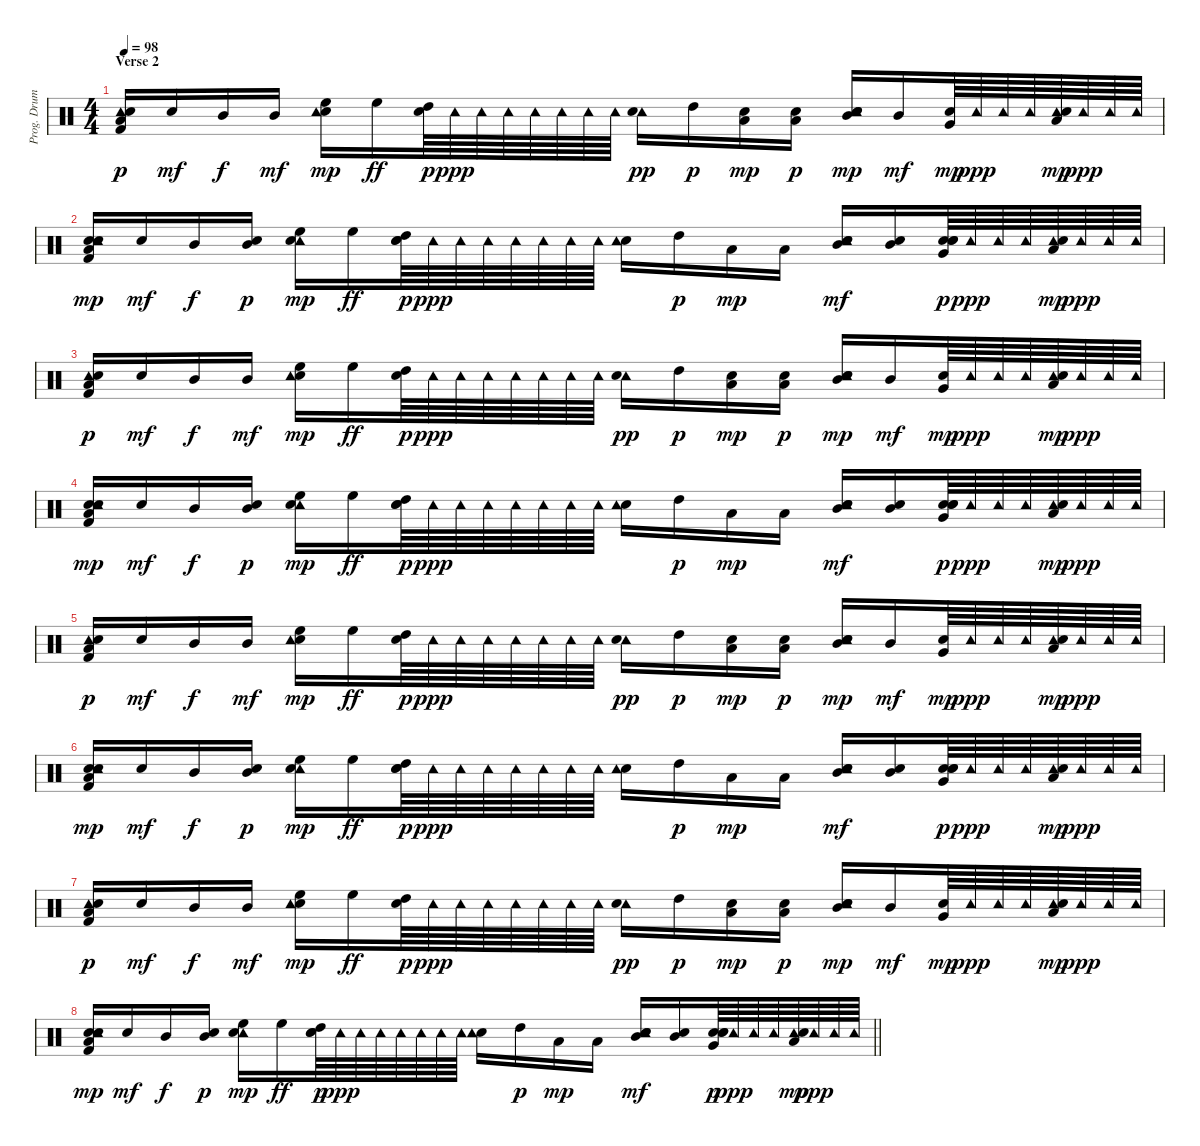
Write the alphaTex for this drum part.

\track ("Prog. Drums" "Prog. Drum") {instrument percussion}
\staff {score}
\articulation defaults
\ts (4 4)
\section ("" "Verse 2")
\tempo 98
\clef neutral
\ks c
("Tambourine (hit)" "Snare (hit)" "Low Floor Tom (hit)" "Kick (hit) 2").16{dy p} "Snare (hit)".16{dy mf} "Mid Tom (hit)".16{dy f} "Mid Tom (hit)".16{dy mf} ("Snare (hit) 2" "High Floor Tom (hit)" "Tambourine (hit)").16{dy mp} "High Floor Tom (hit)".16{dy ff} ("High Tom (hit)" "Snare (hit)").64{dy p} "Tambourine (hit)".64{dy ppp} "Tambourine (hit)".64 "Tambourine (hit)".64 "Tambourine (hit)".64 "Tambourine (hit)".64 "Tambourine (hit)".64 "Tambourine (hit)".64 ("Tambourine (hit)" "Snare (hit) 2").16{dy pp} "High Tom (hit)".16{dy p} ("Snare (hit)" "Low Tom (hit)").16{dy mp} ("Low Tom (hit)" "Snare (hit)").16{dy p} ("Snare (hit) 2" "Mid Tom (hit)" "Snare (hit)" "Tambourine (hit)").16{dy mp} "Mid Tom (hit)".16{dy mf} ("Snare (hit)" "Very Low Tom (hit)").64{dy mp} "Tambourine (hit)".64{dy ppp} "Tambourine (hit)".64 "Tambourine (hit)".64 ("Tambourine (hit)" "Snare (hit) 2" "Low Tom (hit)").64{dy mp} "Tambourine (hit)".64{dy ppp} "Tambourine (hit)".64 "Tambourine (hit)".64 |
("Snare (hit)" "Snare (hit)" "Tambourine (hit)" "Kick (hit) 2" "Low Floor Tom (hit)").16{dy mp} "Snare (hit)".16{dy mf} "Mid Tom (hit)".16{dy f} ("Mid Tom (hit)" "Snare (hit)").16{dy p} ("Tambourine (hit)" "High Floor Tom (hit)" "Snare (hit) 2").16{dy mp} "High Floor Tom (hit)".16{dy ff} ("High Tom (hit)" "Snare (hit)" "Snare (hit)").64{dy p} "Tambourine (hit)".64{dy ppp} "Tambourine (hit)".64 "Tambourine (hit)".64 "Tambourine (hit)".64 "Tambourine (hit)".64 "Tambourine (hit)".64 "Tambourine (hit)".64 ("Snare (hit) 2" "Tambourine (hit)").16 "High Tom (hit)".16{dy p} "Low Tom (hit)".16{dy mp} "Low Tom (hit)".16 ("Tambourine (hit)" "Snare (hit)" "Snare (hit) 2" "Mid Tom (hit)").16{dy mf} ("Snare (hit) 2" "Mid Tom (hit)").16 ("Snare (hit) 2" "Very Low Tom (hit)" "Snare (hit)" "Snare (hit)").64{dy p} "Tambourine (hit)".64{dy ppp} "Tambourine (hit)".64 "Tambourine (hit)".64 ("Tambourine (hit)" "Snare (hit) 2" "Low Tom (hit)").64{dy mp} "Tambourine (hit)".64{dy ppp} "Tambourine (hit)".64 "Tambourine (hit)".64 |
("Tambourine (hit)" "Snare (hit)" "Low Floor Tom (hit)" "Kick (hit) 2").16{dy p} "Snare (hit)".16{dy mf} "Mid Tom (hit)".16{dy f} "Mid Tom (hit)".16{dy mf} ("Snare (hit) 2" "High Floor Tom (hit)" "Tambourine (hit)").16{dy mp} "High Floor Tom (hit)".16{dy ff} ("High Tom (hit)" "Snare (hit)").64{dy p} "Tambourine (hit)".64{dy ppp} "Tambourine (hit)".64 "Tambourine (hit)".64 "Tambourine (hit)".64 "Tambourine (hit)".64 "Tambourine (hit)".64 "Tambourine (hit)".64 ("Tambourine (hit)" "Snare (hit) 2").16{dy pp} "High Tom (hit)".16{dy p} ("Snare (hit)" "Low Tom (hit)").16{dy mp} ("Low Tom (hit)" "Snare (hit)").16{dy p} ("Snare (hit) 2" "Mid Tom (hit)" "Snare (hit)" "Tambourine (hit)").16{dy mp} "Mid Tom (hit)".16{dy mf} ("Snare (hit)" "Very Low Tom (hit)").64{dy mp} "Tambourine (hit)".64{dy ppp} "Tambourine (hit)".64 "Tambourine (hit)".64 ("Tambourine (hit)" "Snare (hit) 2" "Low Tom (hit)").64{dy mp} "Tambourine (hit)".64{dy ppp} "Tambourine (hit)".64 "Tambourine (hit)".64 |
("Snare (hit)" "Snare (hit)" "Tambourine (hit)" "Kick (hit) 2" "Low Floor Tom (hit)").16{dy mp} "Snare (hit)".16{dy mf} "Mid Tom (hit)".16{dy f} ("Mid Tom (hit)" "Snare (hit)").16{dy p} ("Tambourine (hit)" "High Floor Tom (hit)" "Snare (hit) 2").16{dy mp} "High Floor Tom (hit)".16{dy ff} ("High Tom (hit)" "Snare (hit)" "Snare (hit)").64{dy p} "Tambourine (hit)".64{dy ppp} "Tambourine (hit)".64 "Tambourine (hit)".64 "Tambourine (hit)".64 "Tambourine (hit)".64 "Tambourine (hit)".64 "Tambourine (hit)".64 ("Snare (hit) 2" "Tambourine (hit)").16 "High Tom (hit)".16{dy p} "Low Tom (hit)".16{dy mp} "Low Tom (hit)".16 ("Tambourine (hit)" "Snare (hit)" "Snare (hit) 2" "Mid Tom (hit)").16{dy mf} ("Snare (hit) 2" "Mid Tom (hit)").16 ("Snare (hit) 2" "Very Low Tom (hit)" "Snare (hit)" "Snare (hit)").64{dy p} "Tambourine (hit)".64{dy ppp} "Tambourine (hit)".64 "Tambourine (hit)".64 ("Tambourine (hit)" "Snare (hit) 2" "Low Tom (hit)").64{dy mp} "Tambourine (hit)".64{dy ppp} "Tambourine (hit)".64 "Tambourine (hit)".64 |
("Tambourine (hit)" "Snare (hit)" "Low Floor Tom (hit)" "Kick (hit) 2").16{dy p} "Snare (hit)".16{dy mf} "Mid Tom (hit)".16{dy f} "Mid Tom (hit)".16{dy mf} ("Snare (hit) 2" "High Floor Tom (hit)" "Tambourine (hit)").16{dy mp} "High Floor Tom (hit)".16{dy ff} ("High Tom (hit)" "Snare (hit)").64{dy p} "Tambourine (hit)".64{dy ppp} "Tambourine (hit)".64 "Tambourine (hit)".64 "Tambourine (hit)".64 "Tambourine (hit)".64 "Tambourine (hit)".64 "Tambourine (hit)".64 ("Tambourine (hit)" "Snare (hit) 2").16{dy pp} "High Tom (hit)".16{dy p} ("Snare (hit)" "Low Tom (hit)").16{dy mp} ("Low Tom (hit)" "Snare (hit)").16{dy p} ("Snare (hit) 2" "Mid Tom (hit)" "Snare (hit)" "Tambourine (hit)").16{dy mp} "Mid Tom (hit)".16{dy mf} ("Snare (hit)" "Very Low Tom (hit)").64{dy mp} "Tambourine (hit)".64{dy ppp} "Tambourine (hit)".64 "Tambourine (hit)".64 ("Tambourine (hit)" "Snare (hit) 2" "Low Tom (hit)").64{dy mp} "Tambourine (hit)".64{dy ppp} "Tambourine (hit)".64 "Tambourine (hit)".64 |
("Snare (hit)" "Snare (hit)" "Tambourine (hit)" "Kick (hit) 2" "Low Floor Tom (hit)").16{dy mp} "Snare (hit)".16{dy mf} "Mid Tom (hit)".16{dy f} ("Mid Tom (hit)" "Snare (hit)").16{dy p} ("Tambourine (hit)" "High Floor Tom (hit)" "Snare (hit) 2").16{dy mp} "High Floor Tom (hit)".16{dy ff} ("High Tom (hit)" "Snare (hit)" "Snare (hit)").64{dy p} "Tambourine (hit)".64{dy ppp} "Tambourine (hit)".64 "Tambourine (hit)".64 "Tambourine (hit)".64 "Tambourine (hit)".64 "Tambourine (hit)".64 "Tambourine (hit)".64 ("Snare (hit) 2" "Tambourine (hit)").16 "High Tom (hit)".16{dy p} "Low Tom (hit)".16{dy mp} "Low Tom (hit)".16 ("Tambourine (hit)" "Snare (hit)" "Snare (hit) 2" "Mid Tom (hit)").16{dy mf} ("Snare (hit) 2" "Mid Tom (hit)").16 ("Snare (hit) 2" "Very Low Tom (hit)" "Snare (hit)" "Snare (hit)").64{dy p} "Tambourine (hit)".64{dy ppp} "Tambourine (hit)".64 "Tambourine (hit)".64 ("Tambourine (hit)" "Snare (hit) 2" "Low Tom (hit)").64{dy mp} "Tambourine (hit)".64{dy ppp} "Tambourine (hit)".64 "Tambourine (hit)".64 |
("Tambourine (hit)" "Snare (hit)" "Low Floor Tom (hit)" "Kick (hit) 2").16{dy p} "Snare (hit)".16{dy mf} "Mid Tom (hit)".16{dy f} "Mid Tom (hit)".16{dy mf} ("Snare (hit) 2" "High Floor Tom (hit)" "Tambourine (hit)").16{dy mp} "High Floor Tom (hit)".16{dy ff} ("High Tom (hit)" "Snare (hit)").64{dy p} "Tambourine (hit)".64{dy ppp} "Tambourine (hit)".64 "Tambourine (hit)".64 "Tambourine (hit)".64 "Tambourine (hit)".64 "Tambourine (hit)".64 "Tambourine (hit)".64 ("Tambourine (hit)" "Snare (hit) 2").16{dy pp} "High Tom (hit)".16{dy p} ("Snare (hit)" "Low Tom (hit)").16{dy mp} ("Low Tom (hit)" "Snare (hit)").16{dy p} ("Snare (hit) 2" "Mid Tom (hit)" "Snare (hit)" "Tambourine (hit)").16{dy mp} "Mid Tom (hit)".16{dy mf} ("Snare (hit)" "Very Low Tom (hit)").64{dy mp} "Tambourine (hit)".64{dy ppp} "Tambourine (hit)".64 "Tambourine (hit)".64 ("Tambourine (hit)" "Snare (hit) 2" "Low Tom (hit)").64{dy mp} "Tambourine (hit)".64{dy ppp} "Tambourine (hit)".64 "Tambourine (hit)".64 |
\barLineRight lightlight
("Snare (hit)" "Snare (hit)" "Tambourine (hit)" "Kick (hit) 2" "Low Floor Tom (hit)").16{dy mp} "Snare (hit)".16{dy mf} "Mid Tom (hit)".16{dy f} ("Mid Tom (hit)" "Snare (hit)").16{dy p} ("Tambourine (hit)" "High Floor Tom (hit)" "Snare (hit) 2").16{dy mp} "High Floor Tom (hit)".16{dy ff} ("High Tom (hit)" "Snare (hit)" "Snare (hit)").64{dy p} "Tambourine (hit)".64{dy ppp} "Tambourine (hit)".64 "Tambourine (hit)".64 "Tambourine (hit)".64 "Tambourine (hit)".64 "Tambourine (hit)".64 "Tambourine (hit)".64 ("Snare (hit) 2" "Tambourine (hit)").16 "High Tom (hit)".16{dy p} "Low Tom (hit)".16{dy mp} "Low Tom (hit)".16 ("Tambourine (hit)" "Snare (hit)" "Snare (hit) 2" "Mid Tom (hit)").16{dy mf} ("Snare (hit) 2" "Mid Tom (hit)").16 ("Snare (hit) 2" "Very Low Tom (hit)" "Snare (hit)" "Snare (hit)").64{dy p} "Tambourine (hit)".64{dy ppp} "Tambourine (hit)".64 "Tambourine (hit)".64 ("Tambourine (hit)" "Snare (hit) 2" "Low Tom (hit)").64{dy mp} "Tambourine (hit)".64{dy ppp} "Tambourine (hit)".64 "Tambourine (hit)".64
